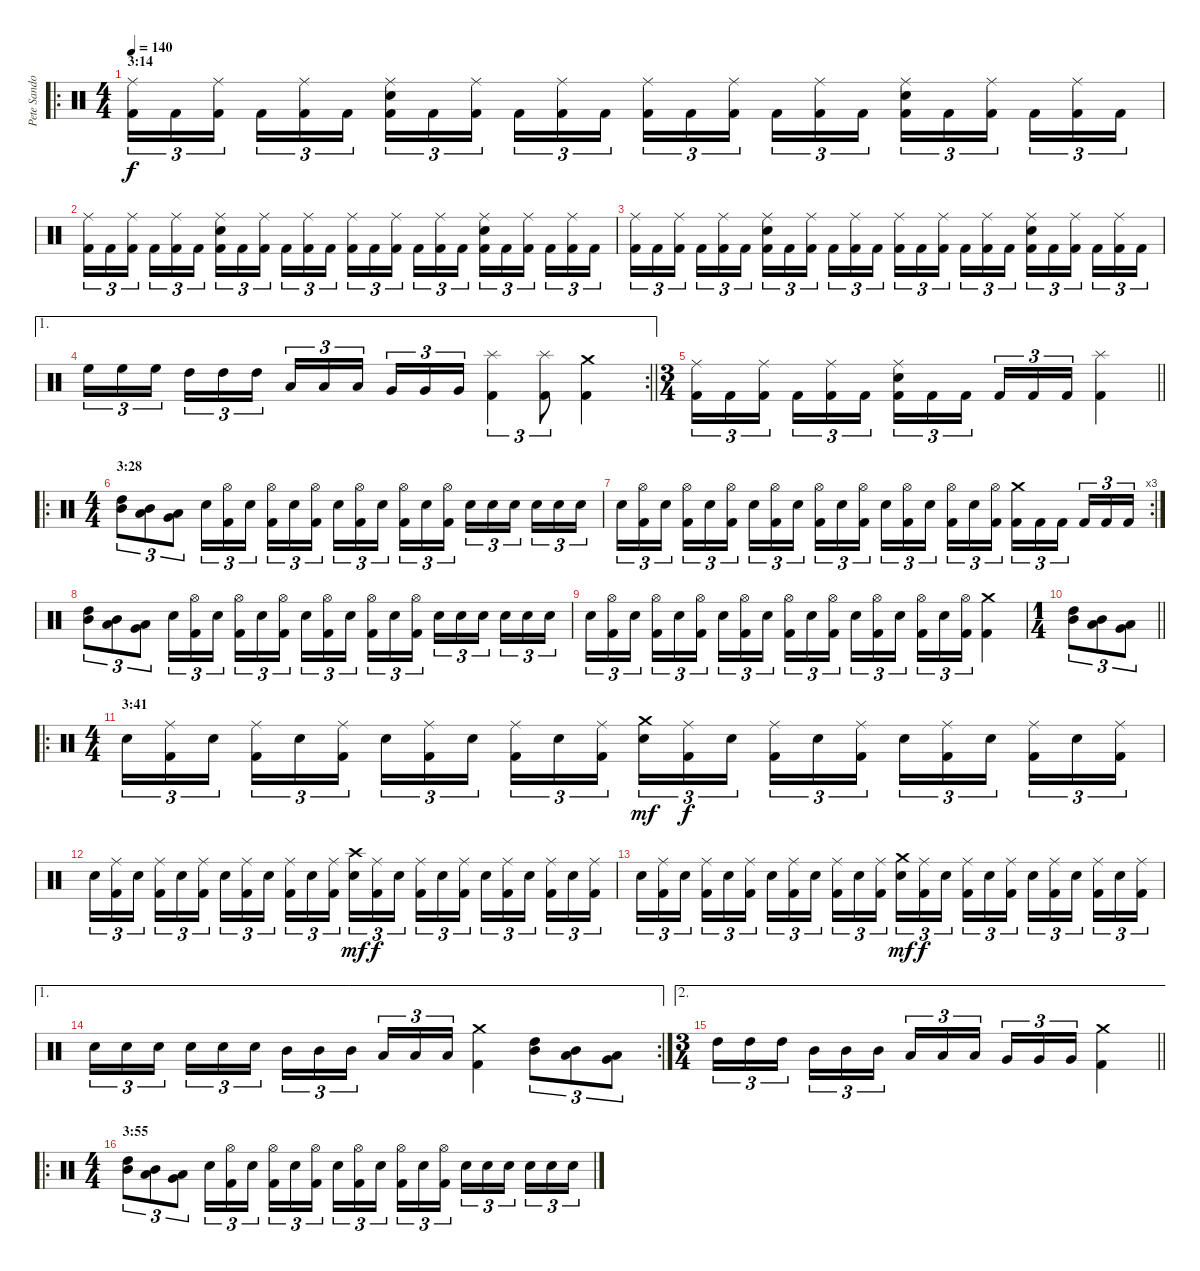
\track ("Pete Sandoval" "Pete Sando") {instrument percussion}
\staff {score}
\articulation defaults
\ro
\ts (4 4)
\section ("" "3:14")
\tempo 140
\clef neutral
\ks c
("Ride (middle)" "Kick (hit) 2").16{tu (3 2) dy f} "Kick (hit) 2".16{tu (3 2)} ("Ride (middle)" "Kick (hit) 2").16{tu (3 2) beam splitsecondary} "Kick (hit) 2".16{tu (3 2)} ("Ride (middle)" "Kick (hit) 2").16{tu (3 2)} "Kick (hit) 2".16{tu (3 2)} ("Ride (middle)" "Electric Snare (hit)" "Kick (hit) 2").16{tu (3 2)} "Kick (hit) 2".16{tu (3 2)} ("Ride (middle)" "Kick (hit) 2").16{tu (3 2) beam splitsecondary} "Kick (hit) 2".16{tu (3 2)} ("Ride (middle)" "Kick (hit) 2").16{tu (3 2)} "Kick (hit) 2".16{tu (3 2)} ("Ride (middle)" "Kick (hit) 2").16{tu (3 2)} "Kick (hit) 2".16{tu (3 2)} ("Ride (middle)" "Kick (hit) 2").16{tu (3 2) beam splitsecondary} "Kick (hit) 2".16{tu (3 2)} ("Ride (middle)" "Kick (hit) 2").16{tu (3 2)} "Kick (hit) 2".16{tu (3 2)} ("Ride (middle)" "Electric Snare (hit)" "Kick (hit) 2").16{tu (3 2)} "Kick (hit) 2".16{tu (3 2)} ("Ride (middle)" "Kick (hit) 2").16{tu (3 2) beam splitsecondary} "Kick (hit) 2".16{tu (3 2)} ("Ride (middle)" "Kick (hit) 2").16{tu (3 2)} "Kick (hit) 2".16{tu (3 2)} |
("Ride (middle)" "Kick (hit) 2").16{tu (3 2)} "Kick (hit) 2".16{tu (3 2)} ("Ride (middle)" "Kick (hit) 2").16{tu (3 2) beam splitsecondary} "Kick (hit) 2".16{tu (3 2)} ("Ride (middle)" "Kick (hit) 2").16{tu (3 2)} "Kick (hit) 2".16{tu (3 2)} ("Ride (middle)" "Electric Snare (hit)" "Kick (hit) 2").16{tu (3 2)} "Kick (hit) 2".16{tu (3 2)} ("Ride (middle)" "Kick (hit) 2").16{tu (3 2) beam splitsecondary} "Kick (hit) 2".16{tu (3 2)} ("Ride (middle)" "Kick (hit) 2").16{tu (3 2)} "Kick (hit) 2".16{tu (3 2)} ("Ride (middle)" "Kick (hit) 2").16{tu (3 2)} "Kick (hit) 2".16{tu (3 2)} ("Ride (middle)" "Kick (hit) 2").16{tu (3 2) beam splitsecondary} "Kick (hit) 2".16{tu (3 2)} ("Ride (middle)" "Kick (hit) 2").16{tu (3 2)} "Kick (hit) 2".16{tu (3 2)} ("Ride (middle)" "Electric Snare (hit)" "Kick (hit) 2").16{tu (3 2)} "Kick (hit) 2".16{tu (3 2)} ("Ride (middle)" "Kick (hit) 2").16{tu (3 2) beam splitsecondary} "Kick (hit) 2".16{tu (3 2)} ("Ride (middle)" "Kick (hit) 2").16{tu (3 2)} "Kick (hit) 2".16{tu (3 2)} |
("Ride (middle)" "Kick (hit) 2").16{tu (3 2)} "Kick (hit) 2".16{tu (3 2)} ("Ride (middle)" "Kick (hit) 2").16{tu (3 2) beam splitsecondary} "Kick (hit) 2".16{tu (3 2)} ("Ride (middle)" "Kick (hit) 2").16{tu (3 2)} "Kick (hit) 2".16{tu (3 2)} ("Ride (middle)" "Electric Snare (hit)" "Kick (hit) 2").16{tu (3 2)} "Kick (hit) 2".16{tu (3 2)} ("Ride (middle)" "Kick (hit) 2").16{tu (3 2) beam splitsecondary} "Kick (hit) 2".16{tu (3 2)} ("Ride (middle)" "Kick (hit) 2").16{tu (3 2)} "Kick (hit) 2".16{tu (3 2)} ("Ride (middle)" "Kick (hit) 2").16{tu (3 2)} "Kick (hit) 2".16{tu (3 2)} ("Ride (middle)" "Kick (hit) 2").16{tu (3 2) beam splitsecondary} "Kick (hit) 2".16{tu (3 2)} ("Ride (middle)" "Kick (hit) 2").16{tu (3 2)} "Kick (hit) 2".16{tu (3 2)} ("Ride (middle)" "Electric Snare (hit)" "Kick (hit) 2").16{tu (3 2)} "Kick (hit) 2".16{tu (3 2)} ("Ride (middle)" "Kick (hit) 2").16{tu (3 2) beam splitsecondary} "Kick (hit) 2".16{tu (3 2)} ("Ride (middle)" "Kick (hit) 2").16{tu (3 2)} "Kick (hit) 2".16{tu (3 2)} |
\ae 1
\rc 2
\barLineRight lightlight "High Floor Tom (hit)".16{tu (3 2)} "High Floor Tom (hit)".16{tu (3 2)} "High Floor Tom (hit)".16{tu (3 2) beam splitsecondary} "High Tom (hit)".16{tu (3 2)} "High Tom (hit)".16{tu (3 2)} "High Tom (hit)".16{tu (3 2)} "Low Tom (hit)".16{tu (3 2)} "Low Tom (hit)".16{tu (3 2)} "Low Tom (hit)".16{tu (3 2) beam splitsecondary} "Very Low Tom (hit)".16{tu (3 2)} "Very Low Tom (hit)".16{tu (3 2)} "Very Low Tom (hit)".16{tu (3 2)}
("Splash (hit)" "Kick (hit) 2").4{tu (3 2)} ("Splash (hit)" "Kick (hit) 2").8{tu (3 2)} ("Crash medium (hit)" "Kick (hit) 2").4 |
\ts (3 4)
\barLineRight lightlight
("Ride (middle)" "Kick (hit) 2").16{tu (3 2)} "Kick (hit) 2".16{tu (3 2)} ("Ride (middle)" "Kick (hit) 2").16{tu (3 2) beam splitsecondary} "Kick (hit) 2".16{tu (3 2)} ("Ride (middle)" "Kick (hit) 2").16{tu (3 2)} "Kick (hit) 2".16{tu (3 2)} ("Ride (middle)" "Electric Snare (hit)" "Kick (hit) 2").16{tu (3 2)} "Kick (hit) 2".16{tu (3 2)} "Kick (hit) 2".16{tu (3 2) beam splitsecondary} "Kick (hit) 2".16{tu (3 2)} "Kick (hit) 2".16{tu (3 2)} "Kick (hit) 2".16{tu (3 2)} ("Splash (hit)" "Kick (hit) 2").4 |
\ro
\ts (4 4)
\section ("" "3:28")
("High Tom (hit)" "Mid Tom (hit)").8{tu (3 2)} ("Mid Tom (hit)" "Low Tom (hit)").8{tu (3 2)} ("Low Tom (hit)" "Very Low Tom (hit)").8{tu (3 2)} "Electric Snare (hit)".16{tu (3 2)} ("Hi-Hat (open)" "Kick (hit) 2").16{tu (3 2)} "Electric Snare (hit)".16{tu (3 2) beam splitsecondary} ("Hi-Hat (open)" "Kick (hit) 2").16{tu (3 2)} "Electric Snare (hit)".16{tu (3 2)} ("Hi-Hat (open)" "Kick (hit) 2").16{tu (3 2)} "Electric Snare (hit)".16{tu (3 2)} ("Hi-Hat (open)" "Kick (hit) 2").16{tu (3 2)} "Electric Snare (hit)".16{tu (3 2) beam splitsecondary} ("Hi-Hat (open)" "Kick (hit) 2").16{tu (3 2)} "Electric Snare (hit)".16{tu (3 2)} ("Hi-Hat (open)" "Kick (hit) 2").16{tu (3 2)} "Electric Snare (hit)".16{tu (3 2)} "Electric Snare (hit)".16{tu (3 2)} "Electric Snare (hit)".16{tu (3 2) beam splitsecondary} "Electric Snare (hit)".16{tu (3 2)} "Electric Snare (hit)".16{tu (3 2)} "Electric Snare (hit)".16{tu (3 2)} |
\rc 3 "Electric Snare (hit)".16{tu (3 2)}
("Hi-Hat (open)" "Kick (hit) 2").16{tu (3 2)} "Electric Snare (hit)".16{tu (3 2) beam splitsecondary} ("Hi-Hat (open)" "Kick (hit) 2").16{tu (3 2)} "Electric Snare (hit)".16{tu (3 2)} ("Hi-Hat (open)" "Kick (hit) 2").16{tu (3 2)} "Electric Snare (hit)".16{tu (3 2)} ("Hi-Hat (open)" "Kick (hit) 2").16{tu (3 2)} "Electric Snare (hit)".16{tu (3 2) beam splitsecondary} ("Hi-Hat (open)" "Kick (hit) 2").16{tu (3 2)} "Electric Snare (hit)".16{tu (3 2)} ("Hi-Hat (open)" "Kick (hit) 2").16{tu (3 2)} "Electric Snare (hit)".16{tu (3 2)} ("Hi-Hat (open)" "Kick (hit) 2").16{tu (3 2)} "Electric Snare (hit)".16{tu (3 2) beam splitsecondary} ("Hi-Hat (open)" "Kick (hit) 2").16{tu (3 2)} "Electric Snare (hit)".16{tu (3 2)} ("Hi-Hat (open)" "Kick (hit) 2").16{tu (3 2)} ("Crash medium (hit)" "Kick (hit) 2").16{tu (3 2)} "Kick (hit) 2".16{tu (3 2)} "Kick (hit) 2".16{tu (3 2) beam splitsecondary} "Kick (hit) 2".16{tu (3 2)} "Kick (hit) 2".16{tu (3 2)} "Kick (hit) 2".16{tu (3 2)} |
("High Tom (hit)" "Mid Tom (hit)").8{tu (3 2)} ("Mid Tom (hit)" "Low Tom (hit)").8{tu (3 2)} ("Low Tom (hit)" "Very Low Tom (hit)").8{tu (3 2)} "Electric Snare (hit)".16{tu (3 2)} ("Hi-Hat (open)" "Kick (hit) 2").16{tu (3 2)} "Electric Snare (hit)".16{tu (3 2) beam splitsecondary} ("Hi-Hat (open)" "Kick (hit) 2").16{tu (3 2)} "Electric Snare (hit)".16{tu (3 2)} ("Hi-Hat (open)" "Kick (hit) 2").16{tu (3 2)} "Electric Snare (hit)".16{tu (3 2)} ("Hi-Hat (open)" "Kick (hit) 2").16{tu (3 2)} "Electric Snare (hit)".16{tu (3 2) beam splitsecondary} ("Hi-Hat (open)" "Kick (hit) 2").16{tu (3 2)} "Electric Snare (hit)".16{tu (3 2)} ("Hi-Hat (open)" "Kick (hit) 2").16{tu (3 2)} "Electric Snare (hit)".16{tu (3 2)} "Electric Snare (hit)".16{tu (3 2)} "Electric Snare (hit)".16{tu (3 2) beam splitsecondary} "Electric Snare (hit)".16{tu (3 2)} "Electric Snare (hit)".16{tu (3 2)} "Electric Snare (hit)".16{tu (3 2)} |
"Electric Snare (hit)".16{tu (3 2)} ("Hi-Hat (open)" "Kick (hit) 2").16{tu (3 2)} "Electric Snare (hit)".16{tu (3 2) beam splitsecondary} ("Hi-Hat (open)" "Kick (hit) 2").16{tu (3 2)} "Electric Snare (hit)".16{tu (3 2)} ("Hi-Hat (open)" "Kick (hit) 2").16{tu (3 2)} "Electric Snare (hit)".16{tu (3 2)} ("Hi-Hat (open)" "Kick (hit) 2").16{tu (3 2)} "Electric Snare (hit)".16{tu (3 2) beam splitsecondary} ("Hi-Hat (open)" "Kick (hit) 2").16{tu (3 2)} "Electric Snare (hit)".16{tu (3 2)} ("Hi-Hat (open)" "Kick (hit) 2").16{tu (3 2)} "Electric Snare (hit)".16{tu (3 2)} ("Hi-Hat (open)" "Kick (hit) 2").16{tu (3 2)} "Electric Snare (hit)".16{tu (3 2) beam splitsecondary} ("Hi-Hat (open)" "Kick (hit) 2").16{tu (3 2)} "Electric Snare (hit)".16{tu (3 2)} ("Hi-Hat (open)" "Kick (hit) 2").16{tu (3 2)} ("Crash medium (hit)" "Kick (hit) 2").4 |
\ts (1 4)
\barLineRight lightlight
("High Tom (hit)" "Mid Tom (hit)").8{tu (3 2)} ("Mid Tom (hit)" "Low Tom (hit)").8{tu (3 2)} ("Low Tom (hit)" "Very Low Tom (hit)").8{tu (3 2)} |
\ro
\ts (4 4)
\section ("" "3:41")
"Electric Snare (hit)".16{tu (3 2)} ("Ride (middle)" "Kick (hit) 2").16{tu (3 2)} "Electric Snare (hit)".16{tu (3 2) beam splitsecondary} ("Ride (middle)" "Kick (hit) 2").16{tu (3 2)} "Electric Snare (hit)".16{tu (3 2)} ("Ride (middle)" "Kick (hit) 2").16{tu (3 2)} "Electric Snare (hit)".16{tu (3 2)} ("Ride (middle)" "Kick (hit) 2").16{tu (3 2)} "Electric Snare (hit)".16{tu (3 2) beam splitsecondary} ("Ride (middle)" "Kick (hit) 2").16{tu (3 2)} "Electric Snare (hit)".16{tu (3 2)} ("Ride (middle)" "Kick (hit) 2").16{tu (3 2)} ("Crash medium (hit)" "Electric Snare (hit)").16{tu (3 2) dy mf} ("Ride (middle)" "Kick (hit) 2").16{tu (3 2) dy f} "Electric Snare (hit)".16{tu (3 2) beam splitsecondary} ("Ride (middle)" "Kick (hit) 2").16{tu (3 2)} "Electric Snare (hit)".16{tu (3 2)} ("Ride (middle)" "Kick (hit) 2").16{tu (3 2)} "Electric Snare (hit)".16{tu (3 2)} ("Ride (middle)" "Kick (hit) 2").16{tu (3 2)} "Electric Snare (hit)".16{tu (3 2) beam splitsecondary} ("Ride (middle)" "Kick (hit) 2").16{tu (3 2)} "Electric Snare (hit)".16{tu (3 2)} ("Ride (middle)" "Kick (hit) 2").16{tu (3 2)} |
"Electric Snare (hit)".16{tu (3 2)} ("Ride (middle)" "Kick (hit) 2").16{tu (3 2)} "Electric Snare (hit)".16{tu (3 2) beam splitsecondary} ("Ride (middle)" "Kick (hit) 2").16{tu (3 2)} "Electric Snare (hit)".16{tu (3 2)} ("Ride (middle)" "Kick (hit) 2").16{tu (3 2)} "Electric Snare (hit)".16{tu (3 2)} ("Ride (middle)" "Kick (hit) 2").16{tu (3 2)} "Electric Snare (hit)".16{tu (3 2) beam splitsecondary} ("Ride (middle)" "Kick (hit) 2").16{tu (3 2)} "Electric Snare (hit)".16{tu (3 2)} ("Ride (middle)" "Kick (hit) 2").16{tu (3 2)} ("Crash high (hit)" "Electric Snare (hit)").16{tu (3 2) dy mf} ("Ride (middle)" "Kick (hit) 2").16{tu (3 2) dy f} "Electric Snare (hit)".16{tu (3 2) beam splitsecondary} ("Ride (middle)" "Kick (hit) 2").16{tu (3 2)} "Electric Snare (hit)".16{tu (3 2)} ("Ride (middle)" "Kick (hit) 2").16{tu (3 2)} "Electric Snare (hit)".16{tu (3 2)} ("Ride (middle)" "Kick (hit) 2").16{tu (3 2)} "Electric Snare (hit)".16{tu (3 2) beam splitsecondary} ("Ride (middle)" "Kick (hit) 2").16{tu (3 2)} "Electric Snare (hit)".16{tu (3 2)} ("Ride (middle)" "Kick (hit) 2").16{tu (3 2)} |
"Electric Snare (hit)".16{tu (3 2)} ("Ride (middle)" "Kick (hit) 2").16{tu (3 2)} "Electric Snare (hit)".16{tu (3 2) beam splitsecondary} ("Ride (middle)" "Kick (hit) 2").16{tu (3 2)} "Electric Snare (hit)".16{tu (3 2)} ("Ride (middle)" "Kick (hit) 2").16{tu (3 2)} "Electric Snare (hit)".16{tu (3 2)} ("Ride (middle)" "Kick (hit) 2").16{tu (3 2)} "Electric Snare (hit)".16{tu (3 2) beam splitsecondary} ("Ride (middle)" "Kick (hit) 2").16{tu (3 2)} "Electric Snare (hit)".16{tu (3 2)} ("Ride (middle)" "Kick (hit) 2").16{tu (3 2)} ("Crash medium (hit)" "Electric Snare (hit)").16{tu (3 2) dy mf} ("Ride (middle)" "Kick (hit) 2").16{tu (3 2) dy f} "Electric Snare (hit)".16{tu (3 2) beam splitsecondary} ("Ride (middle)" "Kick (hit) 2").16{tu (3 2)} "Electric Snare (hit)".16{tu (3 2)} ("Ride (middle)" "Kick (hit) 2").16{tu (3 2)} "Electric Snare (hit)".16{tu (3 2)} ("Ride (middle)" "Kick (hit) 2").16{tu (3 2)} "Electric Snare (hit)".16{tu (3 2) beam splitsecondary} ("Ride (middle)" "Kick (hit) 2").16{tu (3 2)} "Electric Snare (hit)".16{tu (3 2)} ("Ride (middle)" "Kick (hit) 2").16{tu (3 2)} |
\ae 1
\rc 2 "Electric Snare (hit)".16{tu (3 2)} "Electric Snare (hit)".16{tu (3 2)} "Electric Snare (hit)".16{tu (3 2) beam splitsecondary} "Electric Snare (hit)".16{tu (3 2)} "Electric Snare (hit)".16{tu (3 2)} "Electric Snare (hit)".16{tu (3 2)} "Mid Tom (hit)".16{tu (3 2)} "Mid Tom (hit)".16{tu (3 2)} "Mid Tom (hit)".16{tu (3 2) beam splitsecondary} "Low Tom (hit)".16{tu (3 2)} "Low Tom (hit)".16{tu (3 2)} "Low Tom (hit)".16{tu (3 2)}
("Crash medium (hit)" "Kick (hit) 2").4 ("High Tom (hit)" "Mid Tom (hit)").8{tu (3 2)} ("Mid Tom (hit)" "Low Tom (hit)").8{tu (3 2)} ("Low Tom (hit)" "Very Low Tom (hit)").8{tu (3 2)} |
\ae 2
\ts (3 4)
\barLineRight lightlight "High Tom (hit)".16{tu (3 2)} "High Tom (hit)".16{tu (3 2)} "High Tom (hit)".16{tu (3 2) beam splitsecondary} "Mid Tom (hit)".16{tu (3 2)} "Mid Tom (hit)".16{tu (3 2)} "Mid Tom (hit)".16{tu (3 2)} "Low Tom (hit)".16{tu (3 2)} "Low Tom (hit)".16{tu (3 2)} "Low Tom (hit)".16{tu (3 2) beam splitsecondary} "Very Low Tom (hit)".16{tu (3 2)} "Very Low Tom (hit)".16{tu (3 2)} "Very Low Tom (hit)".16{tu (3 2)}
("Crash medium (hit)" "Kick (hit) 2").4 |
\ro
\ts (4 4)
\section ("" "3:55")
("High Tom (hit)" "Mid Tom (hit)").8{tu (3 2)} ("Mid Tom (hit)" "Low Tom (hit)").8{tu (3 2)} ("Low Tom (hit)" "Very Low Tom (hit)").8{tu (3 2)} "Electric Snare (hit)".16{tu (3 2)} ("Hi-Hat (open)" "Kick (hit) 2").16{tu (3 2)} "Electric Snare (hit)".16{tu (3 2) beam splitsecondary} ("Hi-Hat (open)" "Kick (hit) 2").16{tu (3 2)} "Electric Snare (hit)".16{tu (3 2)} ("Hi-Hat (open)" "Kick (hit) 2").16{tu (3 2)} "Electric Snare (hit)".16{tu (3 2)} ("Hi-Hat (open)" "Kick (hit) 2").16{tu (3 2)} "Electric Snare (hit)".16{tu (3 2) beam splitsecondary} ("Hi-Hat (open)" "Kick (hit) 2").16{tu (3 2)} "Electric Snare (hit)".16{tu (3 2)} ("Hi-Hat (open)" "Kick (hit) 2").16{tu (3 2)} "Electric Snare (hit)".16{tu (3 2)} "Electric Snare (hit)".16{tu (3 2)} "Electric Snare (hit)".16{tu (3 2) beam splitsecondary} "Electric Snare (hit)".16{tu (3 2)} "Electric Snare (hit)".16{tu (3 2)} "Electric Snare (hit)".16{tu (3 2)}
